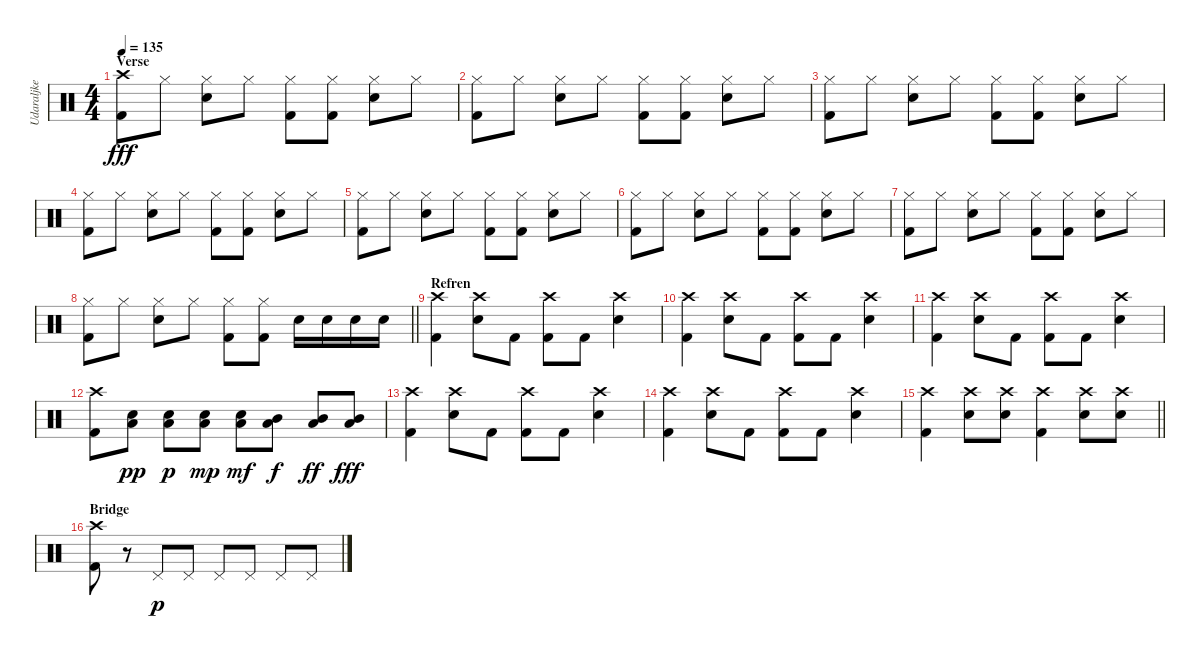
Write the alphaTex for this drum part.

\track ("Udaraljke" "Udaraljke") {instrument percussion}
\staff
\articulation defaults
\ts (4 4)
\section ("" "Verse")
\tempo 135
\clef neutral
\ks c
("Crash high (hit)" "Kick (hit) 2").8{dy fff} "Hi-Hat (closed)".8 ("Hi-Hat (closed)" "Snare (hit) 2").8 "Hi-Hat (closed)".8 ("Hi-Hat (closed)" "Kick (hit) 2").8 ("Hi-Hat (closed)" "Kick (hit) 2").8 ("Hi-Hat (closed)" "Snare (hit) 2").8 "Hi-Hat (closed)".8 |
("Hi-Hat (closed)" "Kick (hit) 2").8 "Hi-Hat (closed)".8 ("Hi-Hat (closed)" "Snare (hit) 2").8 "Hi-Hat (closed)".8 ("Hi-Hat (closed)" "Kick (hit) 2").8 ("Hi-Hat (closed)" "Kick (hit) 2").8 ("Hi-Hat (closed)" "Snare (hit) 2").8 "Hi-Hat (closed)".8 |
("Hi-Hat (closed)" "Kick (hit) 2").8 "Hi-Hat (closed)".8 ("Hi-Hat (closed)" "Snare (hit) 2").8 "Hi-Hat (closed)".8 ("Hi-Hat (closed)" "Kick (hit) 2").8 ("Hi-Hat (closed)" "Kick (hit) 2").8 ("Hi-Hat (closed)" "Snare (hit) 2").8 "Hi-Hat (closed)".8 |
("Hi-Hat (closed)" "Kick (hit) 2").8 "Hi-Hat (closed)".8 ("Hi-Hat (closed)" "Snare (hit) 2").8 "Hi-Hat (closed)".8 ("Hi-Hat (closed)" "Kick (hit) 2").8 ("Hi-Hat (closed)" "Kick (hit) 2").8 ("Hi-Hat (closed)" "Snare (hit) 2").8 "Hi-Hat (closed)".8 |
("Hi-Hat (closed)" "Kick (hit) 2").8 "Hi-Hat (closed)".8 ("Hi-Hat (closed)" "Snare (hit) 2").8 "Hi-Hat (closed)".8 ("Hi-Hat (closed)" "Kick (hit) 2").8 ("Hi-Hat (closed)" "Kick (hit) 2").8 ("Hi-Hat (closed)" "Snare (hit) 2").8 "Hi-Hat (closed)".8 |
("Hi-Hat (closed)" "Kick (hit) 2").8 "Hi-Hat (closed)".8 ("Hi-Hat (closed)" "Snare (hit) 2").8 "Hi-Hat (closed)".8 ("Hi-Hat (closed)" "Kick (hit) 2").8 ("Hi-Hat (closed)" "Kick (hit) 2").8 ("Hi-Hat (closed)" "Snare (hit) 2").8 "Hi-Hat (closed)".8 |
("Hi-Hat (closed)" "Kick (hit) 2").8 "Hi-Hat (closed)".8 ("Hi-Hat (closed)" "Snare (hit) 2").8 "Hi-Hat (closed)".8 ("Hi-Hat (closed)" "Kick (hit) 2").8 ("Hi-Hat (closed)" "Kick (hit) 2").8 ("Hi-Hat (closed)" "Snare (hit) 2").8 "Hi-Hat (closed)".8 |
\barLineRight lightlight
("Hi-Hat (closed)" "Kick (hit) 2").8 "Hi-Hat (closed)".8 ("Hi-Hat (closed)" "Snare (hit) 2").8 "Hi-Hat (closed)".8 ("Hi-Hat (closed)" "Kick (hit) 2").8 ("Hi-Hat (closed)" "Kick (hit) 2").8 "Snare (hit) 2".16 "Snare (hit) 2".16 "Snare (hit) 2".16 "Snare (hit) 2".16 |
\section ("" "Refren")
("Crash high (hit)" "Kick (hit) 2").4 ("Crash high (hit)" "Snare (hit) 2").8 "Kick (hit) 2".8 ("Crash high (hit)" "Kick (hit) 2").8 "Kick (hit) 2".8 ("Crash high (hit)" "Snare (hit) 2").4 |
("Crash high (hit)" "Kick (hit) 2").4 ("Crash high (hit)" "Snare (hit) 2").8 "Kick (hit) 2".8 ("Crash high (hit)" "Kick (hit) 2").8 "Kick (hit) 2".8 ("Crash high (hit)" "Snare (hit) 2").4 |
("Crash high (hit)" "Kick (hit) 2").4 ("Crash high (hit)" "Snare (hit) 2").8 "Kick (hit) 2".8 ("Crash high (hit)" "Kick (hit) 2").8 "Kick (hit) 2".8 ("Crash high (hit)" "Snare (hit) 2").4 |
("Crash high (hit)" "Kick (hit) 2").8 ("Low Tom (hit)" "Snare (hit) 2").8{dy pp} ("Low Tom (hit)" "Snare (hit) 2").8{dy p} ("Low Tom (hit)" "Snare (hit) 2").8{dy mp} ("Low Tom (hit)" "Snare (hit) 2").8{dy mf} ("Low Tom (hit)" "Mid Tom (hit)").8{dy f} ("Low Tom (hit)" "Mid Tom (hit)").8{dy ff} ("Low Tom (hit)" "Mid Tom (hit)").8{dy fff} |
("Crash high (hit)" "Kick (hit) 2").4 ("Crash high (hit)" "Snare (hit) 2").8 "Kick (hit) 2".8 ("Crash high (hit)" "Kick (hit) 2").8 "Kick (hit) 2".8 ("Crash high (hit)" "Snare (hit) 2").4 |
("Crash high (hit)" "Kick (hit) 2").4 ("Crash high (hit)" "Snare (hit) 2").8 "Kick (hit) 2".8 ("Crash high (hit)" "Kick (hit) 2").8 "Kick (hit) 2".8 ("Crash high (hit)" "Snare (hit) 2").4 |
\barLineRight lightlight
("Crash high (hit)" "Kick (hit) 2").4 ("Crash high (hit)" "Snare (hit) 2").8 ("Crash high (hit)" "Snare (hit) 2").8 ("Crash high (hit)" "Kick (hit) 2").4 ("Crash high (hit)" "Snare (hit) 2").8 ("Crash high (hit)" "Snare (hit) 2").8 |
\section ("" "Bridge")
("Crash high (hit)" "Kick (hit) 2").8 r.8 "Pedal Hi-Hat (hit)".8{dy p} "Pedal Hi-Hat (hit)".8 "Pedal Hi-Hat (hit)".8 "Pedal Hi-Hat (hit)".8 "Pedal Hi-Hat (hit)".8 "Pedal Hi-Hat (hit)".8
